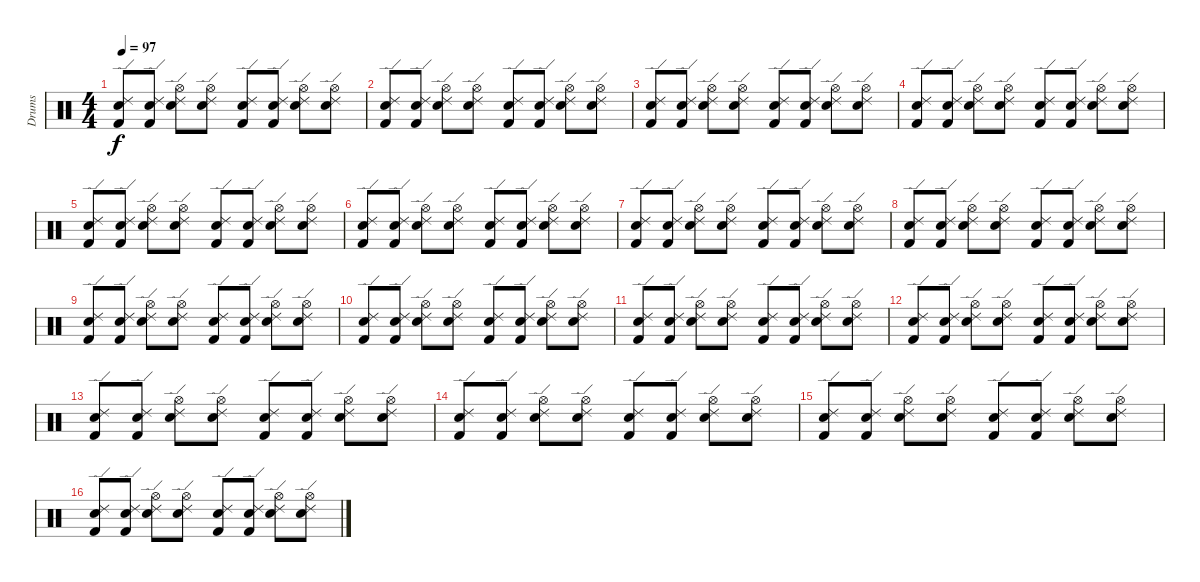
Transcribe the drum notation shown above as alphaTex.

\track ("Drums" "Drums") {instrument percussion}
\staff {score}
\articulation defaults
\ts (4 4)
\tempo 97
\clef neutral
\ks c
("Ride (edge) 2" "Snare (hit) 2" "Kick (hit) 2").8{dy f} ("Ride (edge) 2" "Snare (hit) 2" "Kick (hit) 2").8 ("Ride (edge) 2" "Hi-Hat (open)" "Electric Snare (hit)").8 ("Ride (edge) 2" "Hi-Hat (open)" "Electric Snare (hit)").8 ("Ride (edge) 2" "Snare (hit) 2" "Kick (hit) 2").8 ("Ride (edge) 2" "Snare (hit) 2" "Kick (hit) 2").8 ("Ride (edge) 2" "Hi-Hat (open)" "Electric Snare (hit)").8 ("Ride (edge) 2" "Hi-Hat (open)" "Electric Snare (hit)").8 |
("Ride (edge) 2" "Snare (hit) 2" "Kick (hit) 2").8 ("Ride (edge) 2" "Snare (hit) 2" "Kick (hit) 2").8 ("Ride (edge) 2" "Hi-Hat (open)" "Electric Snare (hit)").8 ("Ride (edge) 2" "Hi-Hat (open)" "Electric Snare (hit)").8 ("Ride (edge) 2" "Snare (hit) 2" "Kick (hit) 2").8 ("Ride (edge) 2" "Snare (hit) 2" "Kick (hit) 2").8 ("Ride (edge) 2" "Hi-Hat (open)" "Electric Snare (hit)").8 ("Ride (edge) 2" "Hi-Hat (open)" "Electric Snare (hit)").8 |
("Ride (edge) 2" "Snare (hit) 2" "Kick (hit) 2").8 ("Ride (edge) 2" "Snare (hit) 2" "Kick (hit) 2").8 ("Ride (edge) 2" "Hi-Hat (open)" "Electric Snare (hit)").8 ("Ride (edge) 2" "Hi-Hat (open)" "Electric Snare (hit)").8 ("Ride (edge) 2" "Snare (hit) 2" "Kick (hit) 2").8 ("Ride (edge) 2" "Snare (hit) 2" "Kick (hit) 2").8 ("Ride (edge) 2" "Hi-Hat (open)" "Electric Snare (hit)").8 ("Ride (edge) 2" "Hi-Hat (open)" "Electric Snare (hit)").8 |
("Ride (edge) 2" "Snare (hit) 2" "Kick (hit) 2").8 ("Ride (edge) 2" "Snare (hit) 2" "Kick (hit) 2").8 ("Ride (edge) 2" "Hi-Hat (open)" "Electric Snare (hit)").8 ("Ride (edge) 2" "Hi-Hat (open)" "Electric Snare (hit)").8 ("Ride (edge) 2" "Snare (hit) 2" "Kick (hit) 2").8 ("Ride (edge) 2" "Snare (hit) 2" "Kick (hit) 2").8 ("Ride (edge) 2" "Hi-Hat (open)" "Electric Snare (hit)").8 ("Ride (edge) 2" "Hi-Hat (open)" "Electric Snare (hit)").8 |
("Ride (edge) 2" "Snare (hit) 2" "Kick (hit) 2").8 ("Ride (edge) 2" "Snare (hit) 2" "Kick (hit) 2").8 ("Ride (edge) 2" "Hi-Hat (open)" "Electric Snare (hit)").8 ("Ride (edge) 2" "Hi-Hat (open)" "Electric Snare (hit)").8 ("Ride (edge) 2" "Snare (hit) 2" "Kick (hit) 2").8 ("Ride (edge) 2" "Snare (hit) 2" "Kick (hit) 2").8 ("Ride (edge) 2" "Hi-Hat (open)" "Electric Snare (hit)").8 ("Ride (edge) 2" "Hi-Hat (open)" "Electric Snare (hit)").8 |
("Ride (edge) 2" "Snare (hit) 2" "Kick (hit) 2").8 ("Ride (edge) 2" "Snare (hit) 2" "Kick (hit) 2").8 ("Ride (edge) 2" "Hi-Hat (open)" "Electric Snare (hit)").8 ("Ride (edge) 2" "Hi-Hat (open)" "Electric Snare (hit)").8 ("Ride (edge) 2" "Snare (hit) 2" "Kick (hit) 2").8 ("Ride (edge) 2" "Snare (hit) 2" "Kick (hit) 2").8 ("Ride (edge) 2" "Hi-Hat (open)" "Electric Snare (hit)").8 ("Ride (edge) 2" "Hi-Hat (open)" "Electric Snare (hit)").8 |
("Ride (edge) 2" "Snare (hit) 2" "Kick (hit) 2").8 ("Ride (edge) 2" "Snare (hit) 2" "Kick (hit) 2").8 ("Ride (edge) 2" "Hi-Hat (open)" "Electric Snare (hit)").8 ("Ride (edge) 2" "Hi-Hat (open)" "Electric Snare (hit)").8 ("Ride (edge) 2" "Snare (hit) 2" "Kick (hit) 2").8 ("Ride (edge) 2" "Snare (hit) 2" "Kick (hit) 2").8 ("Ride (edge) 2" "Hi-Hat (open)" "Electric Snare (hit)").8 ("Ride (edge) 2" "Hi-Hat (open)" "Electric Snare (hit)").8 |
("Ride (edge) 2" "Snare (hit) 2" "Kick (hit) 2").8 ("Ride (edge) 2" "Snare (hit) 2" "Kick (hit) 2").8 ("Ride (edge) 2" "Hi-Hat (open)" "Electric Snare (hit)").8 ("Ride (edge) 2" "Hi-Hat (open)" "Electric Snare (hit)").8 ("Ride (edge) 2" "Snare (hit) 2" "Kick (hit) 2").8 ("Ride (edge) 2" "Snare (hit) 2" "Kick (hit) 2").8 ("Ride (edge) 2" "Hi-Hat (open)" "Electric Snare (hit)").8 ("Ride (edge) 2" "Hi-Hat (open)" "Electric Snare (hit)").8 |
("Ride (edge) 2" "Snare (hit) 2" "Kick (hit) 2").8 ("Ride (edge) 2" "Snare (hit) 2" "Kick (hit) 2").8 ("Ride (edge) 2" "Hi-Hat (open)" "Electric Snare (hit)").8 ("Ride (edge) 2" "Hi-Hat (open)" "Electric Snare (hit)").8 ("Ride (edge) 2" "Snare (hit) 2" "Kick (hit) 2").8 ("Ride (edge) 2" "Snare (hit) 2" "Kick (hit) 2").8 ("Ride (edge) 2" "Hi-Hat (open)" "Electric Snare (hit)").8 ("Ride (edge) 2" "Hi-Hat (open)" "Electric Snare (hit)").8 |
("Ride (edge) 2" "Snare (hit) 2" "Kick (hit) 2").8 ("Ride (edge) 2" "Snare (hit) 2" "Kick (hit) 2").8 ("Ride (edge) 2" "Hi-Hat (open)" "Electric Snare (hit)").8 ("Ride (edge) 2" "Hi-Hat (open)" "Electric Snare (hit)").8 ("Ride (edge) 2" "Snare (hit) 2" "Kick (hit) 2").8 ("Ride (edge) 2" "Snare (hit) 2" "Kick (hit) 2").8 ("Ride (edge) 2" "Hi-Hat (open)" "Electric Snare (hit)").8 ("Ride (edge) 2" "Hi-Hat (open)" "Electric Snare (hit)").8 |
("Ride (edge) 2" "Snare (hit) 2" "Kick (hit) 2").8 ("Ride (edge) 2" "Snare (hit) 2" "Kick (hit) 2").8 ("Ride (edge) 2" "Hi-Hat (open)" "Electric Snare (hit)").8 ("Ride (edge) 2" "Hi-Hat (open)" "Electric Snare (hit)").8 ("Ride (edge) 2" "Snare (hit) 2" "Kick (hit) 2").8 ("Ride (edge) 2" "Snare (hit) 2" "Kick (hit) 2").8 ("Ride (edge) 2" "Hi-Hat (open)" "Electric Snare (hit)").8 ("Ride (edge) 2" "Hi-Hat (open)" "Electric Snare (hit)").8 |
("Ride (edge) 2" "Snare (hit) 2" "Kick (hit) 2").8 ("Ride (edge) 2" "Snare (hit) 2" "Kick (hit) 2").8 ("Ride (edge) 2" "Hi-Hat (open)" "Electric Snare (hit)").8 ("Ride (edge) 2" "Hi-Hat (open)" "Electric Snare (hit)").8 ("Ride (edge) 2" "Snare (hit) 2" "Kick (hit) 2").8 ("Ride (edge) 2" "Snare (hit) 2" "Kick (hit) 2").8 ("Ride (edge) 2" "Hi-Hat (open)" "Electric Snare (hit)").8 ("Ride (edge) 2" "Hi-Hat (open)" "Electric Snare (hit)").8 |
("Ride (edge) 2" "Snare (hit) 2" "Kick (hit) 2").8 ("Ride (edge) 2" "Snare (hit) 2" "Kick (hit) 2").8 ("Ride (edge) 2" "Hi-Hat (open)" "Electric Snare (hit)").8 ("Ride (edge) 2" "Hi-Hat (open)" "Electric Snare (hit)").8 ("Ride (edge) 2" "Snare (hit) 2" "Kick (hit) 2").8 ("Ride (edge) 2" "Snare (hit) 2" "Kick (hit) 2").8 ("Ride (edge) 2" "Hi-Hat (open)" "Electric Snare (hit)").8 ("Ride (edge) 2" "Hi-Hat (open)" "Electric Snare (hit)").8 |
("Ride (edge) 2" "Snare (hit) 2" "Kick (hit) 2").8 ("Ride (edge) 2" "Snare (hit) 2" "Kick (hit) 2").8 ("Ride (edge) 2" "Hi-Hat (open)" "Electric Snare (hit)").8 ("Ride (edge) 2" "Hi-Hat (open)" "Electric Snare (hit)").8 ("Ride (edge) 2" "Snare (hit) 2" "Kick (hit) 2").8 ("Ride (edge) 2" "Snare (hit) 2" "Kick (hit) 2").8 ("Ride (edge) 2" "Hi-Hat (open)" "Electric Snare (hit)").8 ("Ride (edge) 2" "Hi-Hat (open)" "Electric Snare (hit)").8 |
("Ride (edge) 2" "Snare (hit) 2" "Kick (hit) 2").8 ("Ride (edge) 2" "Snare (hit) 2" "Kick (hit) 2").8 ("Ride (edge) 2" "Hi-Hat (open)" "Electric Snare (hit)").8 ("Ride (edge) 2" "Hi-Hat (open)" "Electric Snare (hit)").8 ("Ride (edge) 2" "Snare (hit) 2" "Kick (hit) 2").8 ("Ride (edge) 2" "Snare (hit) 2" "Kick (hit) 2").8 ("Ride (edge) 2" "Hi-Hat (open)" "Electric Snare (hit)").8 ("Ride (edge) 2" "Hi-Hat (open)" "Electric Snare (hit)").8 |
("Ride (edge) 2" "Snare (hit) 2" "Kick (hit) 2").8 ("Ride (edge) 2" "Snare (hit) 2" "Kick (hit) 2").8 ("Ride (edge) 2" "Hi-Hat (open)" "Electric Snare (hit)").8 ("Ride (edge) 2" "Hi-Hat (open)" "Electric Snare (hit)").8 ("Ride (edge) 2" "Snare (hit) 2" "Kick (hit) 2").8 ("Ride (edge) 2" "Snare (hit) 2" "Kick (hit) 2").8 ("Ride (edge) 2" "Hi-Hat (open)" "Electric Snare (hit)").8 ("Ride (edge) 2" "Hi-Hat (open)" "Electric Snare (hit)").8
